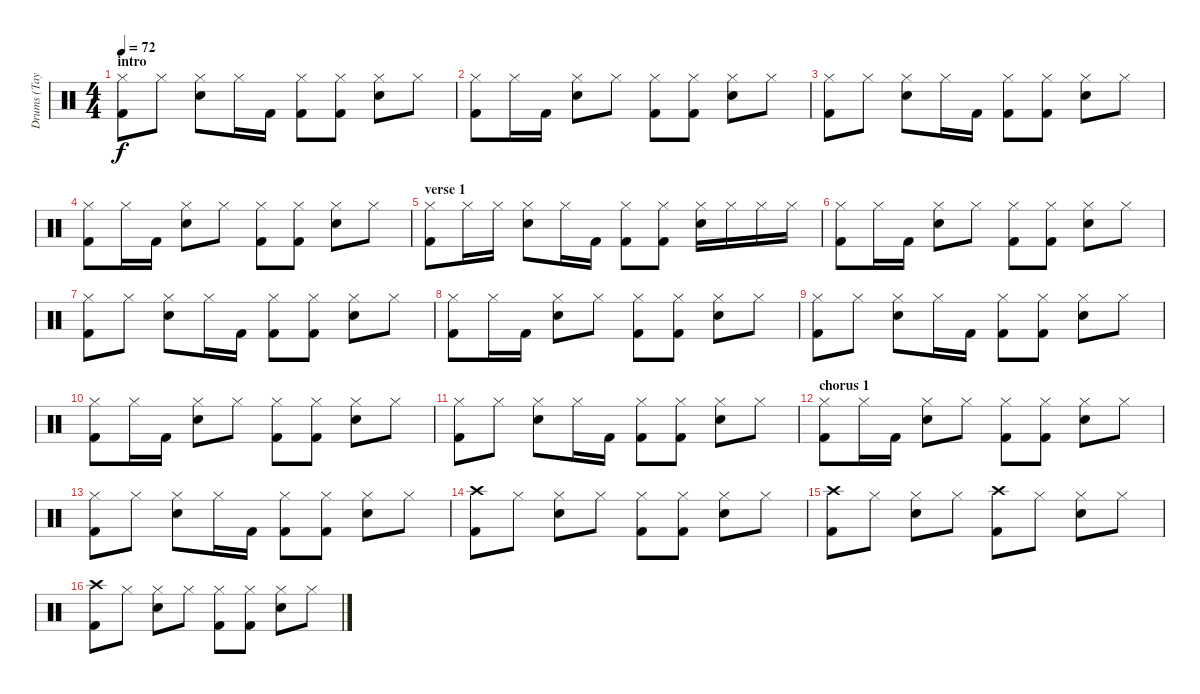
\track ("Drums (Taylor)" "Drums (Tay") {instrument percussion}
\staff {score}
\articulation defaults
\ts (4 4)
\section ("" "intro")
\tempo 72
\clef neutral
\ks c
("Hi-Hat (closed)" "Kick (hit) 2").8{dy f} "Hi-Hat (closed)".8 ("Hi-Hat (closed)" "Electric Snare (hit)").8 "Hi-Hat (closed)".16 "Kick (hit) 2".16 ("Hi-Hat (closed)" "Kick (hit) 2").8 ("Hi-Hat (closed)" "Kick (hit) 2").8 ("Hi-Hat (closed)" "Electric Snare (hit)").8 "Hi-Hat (closed)".8 |
("Hi-Hat (closed)" "Kick (hit) 2").8 "Hi-Hat (closed)".16 "Kick (hit) 2".16 ("Hi-Hat (closed)" "Electric Snare (hit)").8 "Hi-Hat (closed)".8 ("Hi-Hat (closed)" "Kick (hit) 2").8 ("Hi-Hat (closed)" "Kick (hit) 2").8 ("Hi-Hat (closed)" "Electric Snare (hit)").8 "Hi-Hat (closed)".8 |
("Hi-Hat (closed)" "Kick (hit) 2").8 "Hi-Hat (closed)".8 ("Hi-Hat (closed)" "Electric Snare (hit)").8 "Hi-Hat (closed)".16 "Kick (hit) 2".16 ("Hi-Hat (closed)" "Kick (hit) 2").8 ("Hi-Hat (closed)" "Kick (hit) 2").8 ("Hi-Hat (closed)" "Electric Snare (hit)").8 "Hi-Hat (closed)".8 |
("Hi-Hat (closed)" "Kick (hit) 2").8 "Hi-Hat (closed)".16 "Kick (hit) 2".16 ("Hi-Hat (closed)" "Electric Snare (hit)").8 "Hi-Hat (closed)".8 ("Hi-Hat (closed)" "Kick (hit) 2").8 ("Hi-Hat (closed)" "Kick (hit) 2").8 ("Hi-Hat (closed)" "Electric Snare (hit)").8 "Hi-Hat (closed)".8 |
\section ("" "verse 1")
("Hi-Hat (closed)" "Kick (hit) 2").8 "Hi-Hat (closed)".16 "Hi-Hat (closed)".16 ("Hi-Hat (closed)" "Electric Snare (hit)").8 "Hi-Hat (closed)".16 "Kick (hit) 2".16 ("Hi-Hat (closed)" "Kick (hit) 2").8 ("Hi-Hat (closed)" "Kick (hit) 2").8 ("Hi-Hat (closed)" "Electric Snare (hit)").16 "Hi-Hat (closed)".16 "Hi-Hat (closed)".16 "Hi-Hat (closed)".16 |
("Hi-Hat (closed)" "Kick (hit) 2").8 "Hi-Hat (closed)".16 "Kick (hit) 2".16 ("Hi-Hat (closed)" "Electric Snare (hit)").8 "Hi-Hat (closed)".8 ("Hi-Hat (closed)" "Kick (hit) 2").8 ("Hi-Hat (closed)" "Kick (hit) 2").8 ("Hi-Hat (closed)" "Electric Snare (hit)").8 "Hi-Hat (closed)".8 |
("Hi-Hat (closed)" "Kick (hit) 2").8 "Hi-Hat (closed)".8 ("Hi-Hat (closed)" "Electric Snare (hit)").8 "Hi-Hat (closed)".16 "Kick (hit) 2".16 ("Hi-Hat (closed)" "Kick (hit) 2").8 ("Hi-Hat (closed)" "Kick (hit) 2").8 ("Hi-Hat (closed)" "Electric Snare (hit)").8 "Hi-Hat (closed)".8 |
("Hi-Hat (closed)" "Kick (hit) 2").8 "Hi-Hat (closed)".16 "Kick (hit) 2".16 ("Hi-Hat (closed)" "Electric Snare (hit)").8 "Hi-Hat (closed)".8 ("Hi-Hat (closed)" "Kick (hit) 2").8 ("Hi-Hat (closed)" "Kick (hit) 2").8 ("Hi-Hat (closed)" "Electric Snare (hit)").8 "Hi-Hat (closed)".8 |
("Hi-Hat (closed)" "Kick (hit) 2").8 "Hi-Hat (closed)".8 ("Hi-Hat (closed)" "Electric Snare (hit)").8 "Hi-Hat (closed)".16 "Kick (hit) 2".16 ("Hi-Hat (closed)" "Kick (hit) 2").8 ("Hi-Hat (closed)" "Kick (hit) 2").8 ("Hi-Hat (closed)" "Electric Snare (hit)").8 "Hi-Hat (closed)".8 |
("Hi-Hat (closed)" "Kick (hit) 2").8 "Hi-Hat (closed)".16 "Kick (hit) 2".16 ("Hi-Hat (closed)" "Electric Snare (hit)").8 "Hi-Hat (closed)".8 ("Hi-Hat (closed)" "Kick (hit) 2").8 ("Hi-Hat (closed)" "Kick (hit) 2").8 ("Hi-Hat (closed)" "Electric Snare (hit)").8 "Hi-Hat (closed)".8 |
("Hi-Hat (closed)" "Kick (hit) 2").8 "Hi-Hat (closed)".8 ("Hi-Hat (closed)" "Electric Snare (hit)").8 "Hi-Hat (closed)".16 "Kick (hit) 2".16 ("Hi-Hat (closed)" "Kick (hit) 2").8 ("Hi-Hat (closed)" "Kick (hit) 2").8 ("Hi-Hat (closed)" "Electric Snare (hit)").8 "Hi-Hat (closed)".8 |
\section ("" "chorus 1")
("Hi-Hat (closed)" "Kick (hit) 2").8 "Hi-Hat (closed)".16 "Kick (hit) 2".16 ("Hi-Hat (closed)" "Electric Snare (hit)").8 "Hi-Hat (closed)".8 ("Hi-Hat (closed)" "Kick (hit) 2").8 ("Hi-Hat (closed)" "Kick (hit) 2").8 ("Hi-Hat (closed)" "Electric Snare (hit)").8 "Hi-Hat (closed)".8 |
("Hi-Hat (closed)" "Kick (hit) 2").8 "Hi-Hat (closed)".8 ("Hi-Hat (closed)" "Electric Snare (hit)").8 "Hi-Hat (closed)".16 "Kick (hit) 2".16 ("Hi-Hat (closed)" "Kick (hit) 2").8 ("Hi-Hat (closed)" "Kick (hit) 2").8 ("Hi-Hat (closed)" "Electric Snare (hit)").8 "Hi-Hat (closed)".8 |
("Crash high (hit)" "Kick (hit) 2").8 "Hi-Hat (closed)".8 ("Hi-Hat (closed)" "Electric Snare (hit)").8 "Hi-Hat (closed)".8 ("Hi-Hat (closed)" "Kick (hit) 2").8 ("Hi-Hat (closed)" "Kick (hit) 2").8 ("Hi-Hat (closed)" "Electric Snare (hit)").8 "Hi-Hat (closed)".8 |
("Crash high (hit)" "Kick (hit) 2").8 "Hi-Hat (closed)".8 ("Hi-Hat (closed)" "Electric Snare (hit)").8 "Hi-Hat (closed)".8 ("Crash high (hit)" "Kick (hit) 2").8 "Hi-Hat (closed)".8 ("Hi-Hat (closed)" "Electric Snare (hit)").8 "Hi-Hat (closed)".8 |
("Crash high (hit)" "Kick (hit) 2").8 "Hi-Hat (closed)".8 ("Hi-Hat (closed)" "Electric Snare (hit)").8 "Hi-Hat (closed)".8 ("Hi-Hat (closed)" "Kick (hit) 2").8 ("Hi-Hat (closed)" "Kick (hit) 2").8 ("Hi-Hat (closed)" "Electric Snare (hit)").8 "Hi-Hat (closed)".8
